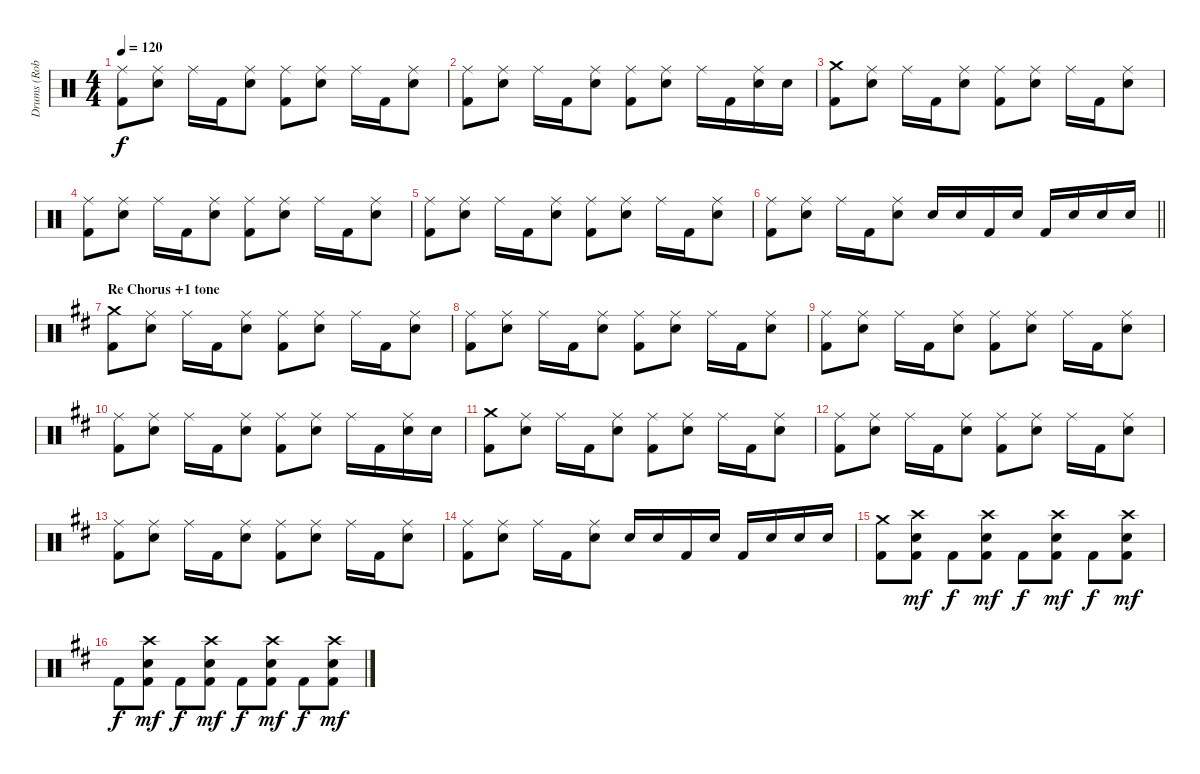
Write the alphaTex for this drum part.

\track ("Drums (Roberto Cappa)" "Drums (Rob") {instrument percussion}
\staff {score}
\articulation defaults
\ts (4 4)
\tempo 120
\clef neutral
\ks c
("Ride (middle)" "Kick (hit) 2").8{dy f} ("Ride (middle)" "Electric Snare (hit)").8 "Ride (middle)".16 "Kick (hit) 2".16 ("Ride (middle)" "Electric Snare (hit)").8 ("Ride (middle)" "Kick (hit) 2").8 ("Ride (middle)" "Electric Snare (hit)").8 "Ride (middle)".16 "Kick (hit) 2".16 ("Ride (middle)" "Electric Snare (hit)").8 |
("Ride (middle)" "Kick (hit) 2").8 ("Ride (middle)" "Electric Snare (hit)").8 "Ride (middle)".16 "Kick (hit) 2".16 ("Ride (middle)" "Electric Snare (hit)").8 ("Ride (middle)" "Kick (hit) 2").8 ("Ride (middle)" "Electric Snare (hit)").8 "Ride (middle)".16 "Kick (hit) 2".16 ("Ride (middle)" "Electric Snare (hit)").16 "Electric Snare (hit)".16 |
("Crash medium (hit)" "Kick (hit) 2").8 ("Ride (middle)" "Electric Snare (hit)").8 "Ride (middle)".16 "Kick (hit) 2".16 ("Ride (middle)" "Electric Snare (hit)").8 ("Ride (middle)" "Kick (hit) 2").8 ("Ride (middle)" "Electric Snare (hit)").8 "Ride (middle)".16 "Kick (hit) 2".16 ("Ride (middle)" "Electric Snare (hit)").8 |
("Ride (middle)" "Kick (hit) 2").8 ("Ride (middle)" "Electric Snare (hit)").8 "Ride (middle)".16 "Kick (hit) 2".16 ("Ride (middle)" "Electric Snare (hit)").8 ("Ride (middle)" "Kick (hit) 2").8 ("Ride (middle)" "Electric Snare (hit)").8 "Ride (middle)".16 "Kick (hit) 2".16 ("Ride (middle)" "Electric Snare (hit)").8 |
("Ride (middle)" "Kick (hit) 2").8 ("Ride (middle)" "Electric Snare (hit)").8 "Ride (middle)".16 "Kick (hit) 2".16 ("Ride (middle)" "Electric Snare (hit)").8 ("Ride (middle)" "Kick (hit) 2").8 ("Ride (middle)" "Electric Snare (hit)").8 "Ride (middle)".16 "Kick (hit) 2".16 ("Ride (middle)" "Electric Snare (hit)").8 |
\barLineRight lightlight
("Ride (middle)" "Kick (hit) 2").8 ("Ride (middle)" "Electric Snare (hit)").8 "Ride (middle)".16 "Kick (hit) 2".16 ("Ride (middle)" "Electric Snare (hit)").8 "Electric Snare (hit)".16 "Electric Snare (hit)".16 "Kick (hit) 2".16 "Electric Snare (hit)".16 "Kick (hit) 2".16 "Electric Snare (hit)".16 "Electric Snare (hit)".16 "Electric Snare (hit)".16 |
\section ("" "Re Chorus +1 tone")
\ks d
("Crash medium (hit)" "Kick (hit) 2").8 ("Ride (middle)" "Electric Snare (hit)").8 "Ride (middle)".16 "Kick (hit) 2".16 ("Ride (middle)" "Electric Snare (hit)").8 ("Ride (middle)" "Kick (hit) 2").8 ("Ride (middle)" "Electric Snare (hit)").8 "Ride (middle)".16 "Kick (hit) 2".16 ("Ride (middle)" "Electric Snare (hit)").8 |
("Ride (middle)" "Kick (hit) 2").8 ("Ride (middle)" "Electric Snare (hit)").8 "Ride (middle)".16 "Kick (hit) 2".16 ("Ride (middle)" "Electric Snare (hit)").8 ("Ride (middle)" "Kick (hit) 2").8 ("Ride (middle)" "Electric Snare (hit)").8 "Ride (middle)".16 "Kick (hit) 2".16 ("Ride (middle)" "Electric Snare (hit)").8 |
("Ride (middle)" "Kick (hit) 2").8 ("Ride (middle)" "Electric Snare (hit)").8 "Ride (middle)".16 "Kick (hit) 2".16 ("Ride (middle)" "Electric Snare (hit)").8 ("Ride (middle)" "Kick (hit) 2").8 ("Ride (middle)" "Electric Snare (hit)").8 "Ride (middle)".16 "Kick (hit) 2".16 ("Ride (middle)" "Electric Snare (hit)").8 |
("Ride (middle)" "Kick (hit) 2").8 ("Ride (middle)" "Electric Snare (hit)").8 "Ride (middle)".16 "Kick (hit) 2".16 ("Ride (middle)" "Electric Snare (hit)").8 ("Ride (middle)" "Kick (hit) 2").8 ("Ride (middle)" "Electric Snare (hit)").8 "Ride (middle)".16 "Kick (hit) 2".16 ("Ride (middle)" "Electric Snare (hit)").16 "Electric Snare (hit)".16 |
("Crash medium (hit)" "Kick (hit) 2").8 ("Ride (middle)" "Electric Snare (hit)").8 "Ride (middle)".16 "Kick (hit) 2".16 ("Ride (middle)" "Electric Snare (hit)").8 ("Ride (middle)" "Kick (hit) 2").8 ("Ride (middle)" "Electric Snare (hit)").8 "Ride (middle)".16 "Kick (hit) 2".16 ("Ride (middle)" "Electric Snare (hit)").8 |
("Ride (middle)" "Kick (hit) 2").8 ("Ride (middle)" "Electric Snare (hit)").8 "Ride (middle)".16 "Kick (hit) 2".16 ("Ride (middle)" "Electric Snare (hit)").8 ("Ride (middle)" "Kick (hit) 2").8 ("Ride (middle)" "Electric Snare (hit)").8 "Ride (middle)".16 "Kick (hit) 2".16 ("Ride (middle)" "Electric Snare (hit)").8 |
("Ride (middle)" "Kick (hit) 2").8 ("Ride (middle)" "Electric Snare (hit)").8 "Ride (middle)".16 "Kick (hit) 2".16 ("Ride (middle)" "Electric Snare (hit)").8 ("Ride (middle)" "Kick (hit) 2").8 ("Ride (middle)" "Electric Snare (hit)").8 "Ride (middle)".16 "Kick (hit) 2".16 ("Ride (middle)" "Electric Snare (hit)").8 |
("Ride (middle)" "Kick (hit) 2").8 ("Ride (middle)" "Electric Snare (hit)").8 "Ride (middle)".16 "Kick (hit) 2".16 ("Ride (middle)" "Electric Snare (hit)").8 "Electric Snare (hit)".16 "Electric Snare (hit)".16 "Kick (hit) 2".16 "Electric Snare (hit)".16 "Kick (hit) 2".16 "Electric Snare (hit)".16 "Electric Snare (hit)".16 "Electric Snare (hit)".16 |
("Crash medium (hit)" "Kick (hit) 2").8 ("Crash high (hit)" "Kick (hit) 2" "Electric Snare (hit)").8{dy mf} "Kick (hit) 2".8{dy f} ("Crash high (hit)" "Kick (hit) 2" "Electric Snare (hit)").8{dy mf} "Kick (hit) 2".8{dy f} ("Crash high (hit)" "Kick (hit) 2" "Electric Snare (hit)").8{dy mf} "Kick (hit) 2".8{dy f} ("Crash high (hit)" "Kick (hit) 2" "Electric Snare (hit)").8{dy mf} |
"Kick (hit) 2".8{dy f} ("Crash high (hit)" "Kick (hit) 2" "Electric Snare (hit)").8{dy mf} "Kick (hit) 2".8{dy f} ("Crash high (hit)" "Kick (hit) 2" "Electric Snare (hit)").8{dy mf} "Kick (hit) 2".8{dy f} ("Crash high (hit)" "Kick (hit) 2" "Electric Snare (hit)").8{dy mf} "Kick (hit) 2".8{dy f} ("Crash high (hit)" "Kick (hit) 2" "Electric Snare (hit)").8{dy mf}
